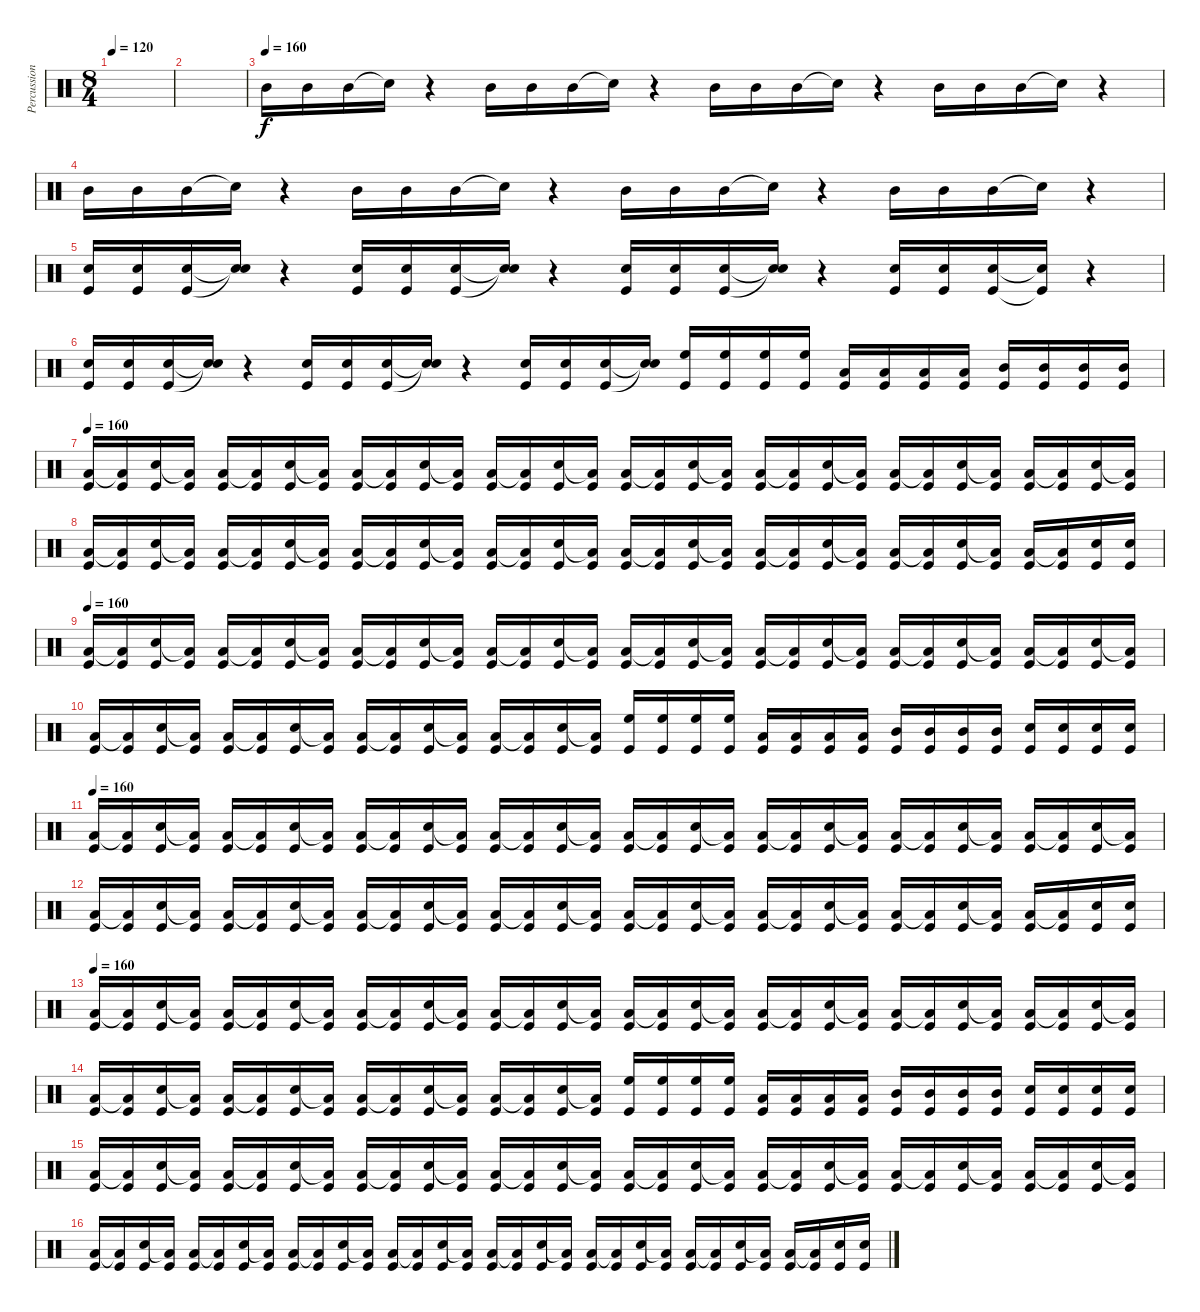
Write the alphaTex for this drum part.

\track ("Percussioni" "Percussion") {instrument percussion}
\staff {score}
\articulation defaults
\ts (8 4)
\tempo 120
\clef neutral
\ks c
|
|
\tempo (160)
"Mid Tom (hit)".16 "Mid Tom (hit)".16 "Mid Tom (hit)".16 "Snare (hit)"{t}.16 r.4 "Mid Tom (hit)".16 "Mid Tom (hit)".16 "Mid Tom (hit)".16 "Snare (hit)"{t}.16 r.4 "Mid Tom (hit)".16 "Mid Tom (hit)".16 "Mid Tom (hit)".16 "Snare (hit)"{t}.16 r.4 "Mid Tom (hit)".16 "Mid Tom (hit)".16 "Mid Tom (hit)".16 "Snare (hit)"{t}.16 r.4 |
"Mid Tom (hit)".16 "Mid Tom (hit)".16 "Mid Tom (hit)".16 "Snare (hit)"{t}.16 r.4 "Mid Tom (hit)".16 "Mid Tom (hit)".16 "Mid Tom (hit)".16 "Snare (hit)"{t}.16 r.4 "Mid Tom (hit)".16 "Mid Tom (hit)".16 "Mid Tom (hit)".16 "Snare (hit)"{t}.16 r.4 "Mid Tom (hit)".16 "Mid Tom (hit)".16 "Mid Tom (hit)".16 "Snare (hit)"{t}.16 r.4 |
("Snare (hit) 2" "Kick (hit)").16 ("Snare (hit) 2" "Kick (hit)").16 ("Snare (hit) 2" "Kick (hit)").16 ("Snare (hit)"{t} "Snare (hit)"{t}).16 r.4 ("Snare (hit) 2" "Kick (hit)").16 ("Snare (hit) 2" "Kick (hit)").16 ("Snare (hit) 2" "Kick (hit)").16 ("Snare (hit)"{t} "Snare (hit)"{t}).16 r.4 ("Snare (hit) 2" "Kick (hit)").16 ("Snare (hit) 2" "Kick (hit)").16 ("Snare (hit) 2" "Kick (hit)").16 ("Snare (hit)"{t} "Snare (hit)"{t}).16 r.4 ("Snare (hit) 2" "Kick (hit)").16 ("Snare (hit) 2" "Kick (hit)").16 ("Snare (hit) 2" "Kick (hit)").16 ("Snare (hit)"{t} "Kick (hit)"{t}).16 r.4 |
("Snare (hit) 2" "Kick (hit)").16 ("Snare (hit) 2" "Kick (hit)").16 ("Snare (hit) 2" "Kick (hit)").16 ("Snare (hit)"{t} "Snare (hit)"{t}).16 r.4 ("Snare (hit) 2" "Kick (hit)").16 ("Snare (hit) 2" "Kick (hit)").16 ("Snare (hit) 2" "Kick (hit)").16 ("Snare (hit)"{t} "Snare (hit)"{t}).16 r.4 ("Snare (hit) 2" "Kick (hit)").16 ("Snare (hit) 2" "Kick (hit)").16 ("Snare (hit) 2" "Kick (hit)").16 ("Snare (hit)"{t} "Snare (hit)"{t}).16 ("High Floor Tom (hit)" "Kick (hit)").16 ("High Floor Tom (hit)" "Kick (hit)").16 ("High Floor Tom (hit)" "Kick (hit)").16 ("High Floor Tom (hit)" "Kick (hit)").16 ("Low Tom (hit)" "Kick (hit)").16 ("Low Tom (hit)" "Kick (hit)").16 ("Low Tom (hit)" "Kick (hit)").16 ("Low Tom (hit)" "Kick (hit)").16 ("Mid Tom (hit)" "Kick (hit)").16 ("Mid Tom (hit)" "Kick (hit)").16 ("Mid Tom (hit)" "Kick (hit)").16 ("Mid Tom (hit)" "Kick (hit)").16 |
\tempo 160
("Low Tom (hit)" "Kick (hit)").16 ("Low Tom (hit)"{t} "Kick (hit)").16 ("Snare (hit) 2" "Kick (hit)").16 ("Low Tom (hit)"{t} "Kick (hit)").16 ("Low Tom (hit)" "Kick (hit)").16 ("Low Tom (hit)"{t} "Kick (hit)").16 ("Snare (hit) 2" "Kick (hit)").16 ("Low Tom (hit)"{t} "Kick (hit)").16 ("Low Tom (hit)" "Kick (hit)").16 ("Low Tom (hit)"{t} "Kick (hit)").16 ("Snare (hit) 2" "Kick (hit)").16 ("Low Tom (hit)"{t} "Kick (hit)").16 ("Low Tom (hit)" "Kick (hit)").16 ("Low Tom (hit)"{t} "Kick (hit)").16 ("Snare (hit) 2" "Kick (hit)").16 ("Low Tom (hit)"{t} "Kick (hit)").16 ("Low Tom (hit)" "Kick (hit)").16 ("Low Tom (hit)"{t} "Kick (hit)").16 ("Snare (hit) 2" "Kick (hit)").16 ("Low Tom (hit)"{t} "Kick (hit)").16 ("Low Tom (hit)" "Kick (hit)").16 ("Low Tom (hit)"{t} "Kick (hit)").16 ("Snare (hit) 2" "Kick (hit)").16 ("Low Tom (hit)"{t} "Kick (hit)").16 ("Low Tom (hit)" "Kick (hit)").16 ("Low Tom (hit)"{t} "Kick (hit)").16 ("Snare (hit) 2" "Kick (hit)").16 ("Low Tom (hit)"{t} "Kick (hit)").16 ("Low Tom (hit)" "Kick (hit)").16 ("Low Tom (hit)"{t} "Kick (hit)").16 ("Snare (hit) 2" "Kick (hit)").16 ("Low Tom (hit)"{t} "Kick (hit)").16 |
("Low Tom (hit)" "Kick (hit)").16 ("Low Tom (hit)"{t} "Kick (hit)").16 ("Snare (hit) 2" "Kick (hit)").16 ("Low Tom (hit)"{t} "Kick (hit)").16 ("Low Tom (hit)" "Kick (hit)").16 ("Low Tom (hit)"{t} "Kick (hit)").16 ("Snare (hit) 2" "Kick (hit)").16 ("Low Tom (hit)"{t} "Kick (hit)").16 ("Low Tom (hit)" "Kick (hit)").16 ("Low Tom (hit)"{t} "Kick (hit)").16 ("Snare (hit) 2" "Kick (hit)").16 ("Low Tom (hit)"{t} "Kick (hit)").16 ("Low Tom (hit)" "Kick (hit)").16 ("Low Tom (hit)"{t} "Kick (hit)").16 ("Snare (hit) 2" "Kick (hit)").16 ("Low Tom (hit)"{t} "Kick (hit)").16 ("Low Tom (hit)" "Kick (hit)").16 ("Low Tom (hit)"{t} "Kick (hit)").16 ("Snare (hit) 2" "Kick (hit)").16 ("Low Tom (hit)"{t} "Kick (hit)").16 ("Low Tom (hit)" "Kick (hit)").16 ("Low Tom (hit)"{t} "Kick (hit)").16 ("Snare (hit) 2" "Kick (hit)").16 ("Low Tom (hit)"{t} "Kick (hit)").16 ("Low Tom (hit)" "Kick (hit)").16 ("Low Tom (hit)"{t} "Kick (hit)").16 ("Snare (hit) 2" "Kick (hit)").16 ("Low Tom (hit)"{t} "Kick (hit)").16 ("Low Tom (hit)" "Kick (hit)").16 ("Low Tom (hit)"{t} "Kick (hit)").16 ("Snare (hit) 2" "Kick (hit)").16 ("Snare (hit) 2" "Kick (hit)").16 |
\tempo 160
("Low Tom (hit)" "Kick (hit)").16 ("Low Tom (hit)"{t} "Kick (hit)").16 ("Snare (hit) 2" "Kick (hit)").16 ("Low Tom (hit)"{t} "Kick (hit)").16 ("Low Tom (hit)" "Kick (hit)").16 ("Low Tom (hit)"{t} "Kick (hit)").16 ("Snare (hit) 2" "Kick (hit)").16 ("Low Tom (hit)"{t} "Kick (hit)").16 ("Low Tom (hit)" "Kick (hit)").16 ("Low Tom (hit)"{t} "Kick (hit)").16 ("Snare (hit) 2" "Kick (hit)").16 ("Low Tom (hit)"{t} "Kick (hit)").16 ("Low Tom (hit)" "Kick (hit)").16 ("Low Tom (hit)"{t} "Kick (hit)").16 ("Snare (hit) 2" "Kick (hit)").16 ("Low Tom (hit)"{t} "Kick (hit)").16 ("Low Tom (hit)" "Kick (hit)").16 ("Low Tom (hit)"{t} "Kick (hit)").16 ("Snare (hit) 2" "Kick (hit)").16 ("Low Tom (hit)"{t} "Kick (hit)").16 ("Low Tom (hit)" "Kick (hit)").16 ("Low Tom (hit)"{t} "Kick (hit)").16 ("Snare (hit) 2" "Kick (hit)").16 ("Low Tom (hit)"{t} "Kick (hit)").16 ("Low Tom (hit)" "Kick (hit)").16 ("Low Tom (hit)"{t} "Kick (hit)").16 ("Snare (hit) 2" "Kick (hit)").16 ("Low Tom (hit)"{t} "Kick (hit)").16 ("Low Tom (hit)" "Kick (hit)").16 ("Low Tom (hit)"{t} "Kick (hit)").16 ("Snare (hit) 2" "Kick (hit)").16 ("Low Tom (hit)"{t} "Kick (hit)").16 |
("Low Tom (hit)" "Kick (hit)").16 ("Low Tom (hit)"{t} "Kick (hit)").16 ("Snare (hit) 2" "Kick (hit)").16 ("Low Tom (hit)"{t} "Kick (hit)").16 ("Low Tom (hit)" "Kick (hit)").16 ("Low Tom (hit)"{t} "Kick (hit)").16 ("Snare (hit) 2" "Kick (hit)").16 ("Low Tom (hit)"{t} "Kick (hit)").16 ("Low Tom (hit)" "Kick (hit)").16 ("Low Tom (hit)"{t} "Kick (hit)").16 ("Snare (hit) 2" "Kick (hit)").16 ("Low Tom (hit)"{t} "Kick (hit)").16 ("Low Tom (hit)" "Kick (hit)").16 ("Low Tom (hit)"{t} "Kick (hit)").16 ("Snare (hit) 2" "Kick (hit)").16 ("Low Tom (hit)"{t} "Kick (hit)").16 ("High Floor Tom (hit)" "Kick (hit)").16 ("High Floor Tom (hit)" "Kick (hit)").16 ("High Floor Tom (hit)" "Kick (hit)").16 ("High Floor Tom (hit)" "Kick (hit)").16 ("Low Tom (hit)" "Kick (hit)").16 ("Low Tom (hit)" "Kick (hit)").16 ("Low Tom (hit)" "Kick (hit)").16 ("Low Tom (hit)" "Kick (hit)").16 ("Mid Tom (hit)" "Kick (hit)").16 ("Mid Tom (hit)" "Kick (hit)").16 ("Mid Tom (hit)" "Kick (hit)").16 ("Mid Tom (hit)" "Kick (hit)").16 ("Snare (hit) 2" "Kick (hit)").16 ("Snare (hit) 2" "Kick (hit)").16 ("Snare (hit) 2" "Kick (hit)").16 ("Snare (hit) 2" "Kick (hit)").16 |
\tempo 160
("Low Tom (hit)" "Kick (hit)").16 ("Low Tom (hit)"{t} "Kick (hit)").16 ("Snare (hit) 2" "Kick (hit)").16 ("Low Tom (hit)"{t} "Kick (hit)").16 ("Low Tom (hit)" "Kick (hit)").16 ("Low Tom (hit)"{t} "Kick (hit)").16 ("Snare (hit) 2" "Kick (hit)").16 ("Low Tom (hit)"{t} "Kick (hit)").16 ("Low Tom (hit)" "Kick (hit)").16 ("Low Tom (hit)"{t} "Kick (hit)").16 ("Snare (hit) 2" "Kick (hit)").16 ("Low Tom (hit)"{t} "Kick (hit)").16 ("Low Tom (hit)" "Kick (hit)").16 ("Low Tom (hit)"{t} "Kick (hit)").16 ("Snare (hit) 2" "Kick (hit)").16 ("Low Tom (hit)"{t} "Kick (hit)").16 ("Low Tom (hit)" "Kick (hit)").16 ("Low Tom (hit)"{t} "Kick (hit)").16 ("Snare (hit) 2" "Kick (hit)").16 ("Low Tom (hit)"{t} "Kick (hit)").16 ("Low Tom (hit)" "Kick (hit)").16 ("Low Tom (hit)"{t} "Kick (hit)").16 ("Snare (hit) 2" "Kick (hit)").16 ("Low Tom (hit)"{t} "Kick (hit)").16 ("Low Tom (hit)" "Kick (hit)").16 ("Low Tom (hit)"{t} "Kick (hit)").16 ("Snare (hit) 2" "Kick (hit)").16 ("Low Tom (hit)"{t} "Kick (hit)").16 ("Low Tom (hit)" "Kick (hit)").16 ("Low Tom (hit)"{t} "Kick (hit)").16 ("Snare (hit) 2" "Kick (hit)").16 ("Low Tom (hit)"{t} "Kick (hit)").16 |
("Low Tom (hit)" "Kick (hit)").16 ("Low Tom (hit)"{t} "Kick (hit)").16 ("Snare (hit) 2" "Kick (hit)").16 ("Low Tom (hit)"{t} "Kick (hit)").16 ("Low Tom (hit)" "Kick (hit)").16 ("Low Tom (hit)"{t} "Kick (hit)").16 ("Snare (hit) 2" "Kick (hit)").16 ("Low Tom (hit)"{t} "Kick (hit)").16 ("Low Tom (hit)" "Kick (hit)").16 ("Low Tom (hit)"{t} "Kick (hit)").16 ("Snare (hit) 2" "Kick (hit)").16 ("Low Tom (hit)"{t} "Kick (hit)").16 ("Low Tom (hit)" "Kick (hit)").16 ("Low Tom (hit)"{t} "Kick (hit)").16 ("Snare (hit) 2" "Kick (hit)").16 ("Low Tom (hit)"{t} "Kick (hit)").16 ("Low Tom (hit)" "Kick (hit)").16 ("Low Tom (hit)"{t} "Kick (hit)").16 ("Snare (hit) 2" "Kick (hit)").16 ("Low Tom (hit)"{t} "Kick (hit)").16 ("Low Tom (hit)" "Kick (hit)").16 ("Low Tom (hit)"{t} "Kick (hit)").16 ("Snare (hit) 2" "Kick (hit)").16 ("Low Tom (hit)"{t} "Kick (hit)").16 ("Low Tom (hit)" "Kick (hit)").16 ("Low Tom (hit)"{t} "Kick (hit)").16 ("Snare (hit) 2" "Kick (hit)").16 ("Low Tom (hit)"{t} "Kick (hit)").16 ("Low Tom (hit)" "Kick (hit)").16 ("Low Tom (hit)"{t} "Kick (hit)").16 ("Snare (hit) 2" "Kick (hit)").16 ("Snare (hit) 2" "Kick (hit)").16 |
\tempo 160
("Low Tom (hit)" "Kick (hit)").16 ("Low Tom (hit)"{t} "Kick (hit)").16 ("Snare (hit) 2" "Kick (hit)").16 ("Low Tom (hit)"{t} "Kick (hit)").16 ("Low Tom (hit)" "Kick (hit)").16 ("Low Tom (hit)"{t} "Kick (hit)").16 ("Snare (hit) 2" "Kick (hit)").16 ("Low Tom (hit)"{t} "Kick (hit)").16 ("Low Tom (hit)" "Kick (hit)").16 ("Low Tom (hit)"{t} "Kick (hit)").16 ("Snare (hit) 2" "Kick (hit)").16 ("Low Tom (hit)"{t} "Kick (hit)").16 ("Low Tom (hit)" "Kick (hit)").16 ("Low Tom (hit)"{t} "Kick (hit)").16 ("Snare (hit) 2" "Kick (hit)").16 ("Low Tom (hit)"{t} "Kick (hit)").16 ("Low Tom (hit)" "Kick (hit)").16 ("Low Tom (hit)"{t} "Kick (hit)").16 ("Snare (hit) 2" "Kick (hit)").16 ("Low Tom (hit)"{t} "Kick (hit)").16 ("Low Tom (hit)" "Kick (hit)").16 ("Low Tom (hit)"{t} "Kick (hit)").16 ("Snare (hit) 2" "Kick (hit)").16 ("Low Tom (hit)"{t} "Kick (hit)").16 ("Low Tom (hit)" "Kick (hit)").16 ("Low Tom (hit)"{t} "Kick (hit)").16 ("Snare (hit) 2" "Kick (hit)").16 ("Low Tom (hit)"{t} "Kick (hit)").16 ("Low Tom (hit)" "Kick (hit)").16 ("Low Tom (hit)"{t} "Kick (hit)").16 ("Snare (hit) 2" "Kick (hit)").16 ("Low Tom (hit)"{t} "Kick (hit)").16 |
("Low Tom (hit)" "Kick (hit)").16 ("Low Tom (hit)"{t} "Kick (hit)").16 ("Snare (hit) 2" "Kick (hit)").16 ("Low Tom (hit)"{t} "Kick (hit)").16 ("Low Tom (hit)" "Kick (hit)").16 ("Low Tom (hit)"{t} "Kick (hit)").16 ("Snare (hit) 2" "Kick (hit)").16 ("Low Tom (hit)"{t} "Kick (hit)").16 ("Low Tom (hit)" "Kick (hit)").16 ("Low Tom (hit)"{t} "Kick (hit)").16 ("Snare (hit) 2" "Kick (hit)").16 ("Low Tom (hit)"{t} "Kick (hit)").16 ("Low Tom (hit)" "Kick (hit)").16 ("Low Tom (hit)"{t} "Kick (hit)").16 ("Snare (hit) 2" "Kick (hit)").16 ("Low Tom (hit)"{t} "Kick (hit)").16 ("High Floor Tom (hit)" "Kick (hit)").16 ("High Floor Tom (hit)" "Kick (hit)").16 ("High Floor Tom (hit)" "Kick (hit)").16 ("High Floor Tom (hit)" "Kick (hit)").16 ("Low Tom (hit)" "Kick (hit)").16 ("Low Tom (hit)" "Kick (hit)").16 ("Low Tom (hit)" "Kick (hit)").16 ("Low Tom (hit)" "Kick (hit)").16 ("Mid Tom (hit)" "Kick (hit)").16 ("Mid Tom (hit)" "Kick (hit)").16 ("Mid Tom (hit)" "Kick (hit)").16 ("Mid Tom (hit)" "Kick (hit)").16 ("Snare (hit) 2" "Kick (hit)").16 ("Snare (hit) 2" "Kick (hit)").16 ("Snare (hit) 2" "Kick (hit)").16 ("Snare (hit) 2" "Kick (hit)").16 |
("Low Tom (hit)" "Kick (hit)").16 ("Low Tom (hit)"{t} "Kick (hit)").16 ("Snare (hit) 2" "Kick (hit)").16 ("Low Tom (hit)"{t} "Kick (hit)").16 ("Low Tom (hit)" "Kick (hit)").16 ("Low Tom (hit)"{t} "Kick (hit)").16 ("Snare (hit) 2" "Kick (hit)").16 ("Low Tom (hit)"{t} "Kick (hit)").16 ("Low Tom (hit)" "Kick (hit)").16 ("Low Tom (hit)"{t} "Kick (hit)").16 ("Snare (hit) 2" "Kick (hit)").16 ("Low Tom (hit)"{t} "Kick (hit)").16 ("Low Tom (hit)" "Kick (hit)").16 ("Low Tom (hit)"{t} "Kick (hit)").16 ("Snare (hit) 2" "Kick (hit)").16 ("Low Tom (hit)"{t} "Kick (hit)").16 ("Low Tom (hit)" "Kick (hit)").16 ("Low Tom (hit)"{t} "Kick (hit)").16 ("Snare (hit) 2" "Kick (hit)").16 ("Low Tom (hit)"{t} "Kick (hit)").16 ("Low Tom (hit)" "Kick (hit)").16 ("Low Tom (hit)"{t} "Kick (hit)").16 ("Snare (hit) 2" "Kick (hit)").16 ("Low Tom (hit)"{t} "Kick (hit)").16 ("Low Tom (hit)" "Kick (hit)").16 ("Low Tom (hit)"{t} "Kick (hit)").16 ("Snare (hit) 2" "Kick (hit)").16 ("Low Tom (hit)"{t} "Kick (hit)").16 ("Low Tom (hit)" "Kick (hit)").16 ("Low Tom (hit)"{t} "Kick (hit)").16 ("Snare (hit) 2" "Kick (hit)").16 ("Low Tom (hit)"{t} "Kick (hit)").16 |
("Low Tom (hit)" "Kick (hit)").16 ("Low Tom (hit)"{t} "Kick (hit)").16 ("Snare (hit) 2" "Kick (hit)").16 ("Low Tom (hit)"{t} "Kick (hit)").16 ("Low Tom (hit)" "Kick (hit)").16 ("Low Tom (hit)"{t} "Kick (hit)").16 ("Snare (hit) 2" "Kick (hit)").16 ("Low Tom (hit)"{t} "Kick (hit)").16 ("Low Tom (hit)" "Kick (hit)").16 ("Low Tom (hit)"{t} "Kick (hit)").16 ("Snare (hit) 2" "Kick (hit)").16 ("Low Tom (hit)"{t} "Kick (hit)").16 ("Low Tom (hit)" "Kick (hit)").16 ("Low Tom (hit)"{t} "Kick (hit)").16 ("Snare (hit) 2" "Kick (hit)").16 ("Low Tom (hit)"{t} "Kick (hit)").16 ("Low Tom (hit)" "Kick (hit)").16 ("Low Tom (hit)"{t} "Kick (hit)").16 ("Snare (hit) 2" "Kick (hit)").16 ("Low Tom (hit)"{t} "Kick (hit)").16 ("Low Tom (hit)" "Kick (hit)").16 ("Low Tom (hit)"{t} "Kick (hit)").16 ("Snare (hit) 2" "Kick (hit)").16 ("Low Tom (hit)"{t} "Kick (hit)").16 ("Low Tom (hit)" "Kick (hit)").16 ("Low Tom (hit)"{t} "Kick (hit)").16 ("Snare (hit) 2" "Kick (hit)").16 ("Low Tom (hit)"{t} "Kick (hit)").16 ("Low Tom (hit)" "Kick (hit)").16 ("Low Tom (hit)"{t} "Kick (hit)").16 ("Snare (hit) 2" "Kick (hit)").16 ("Snare (hit) 2" "Kick (hit)").16
